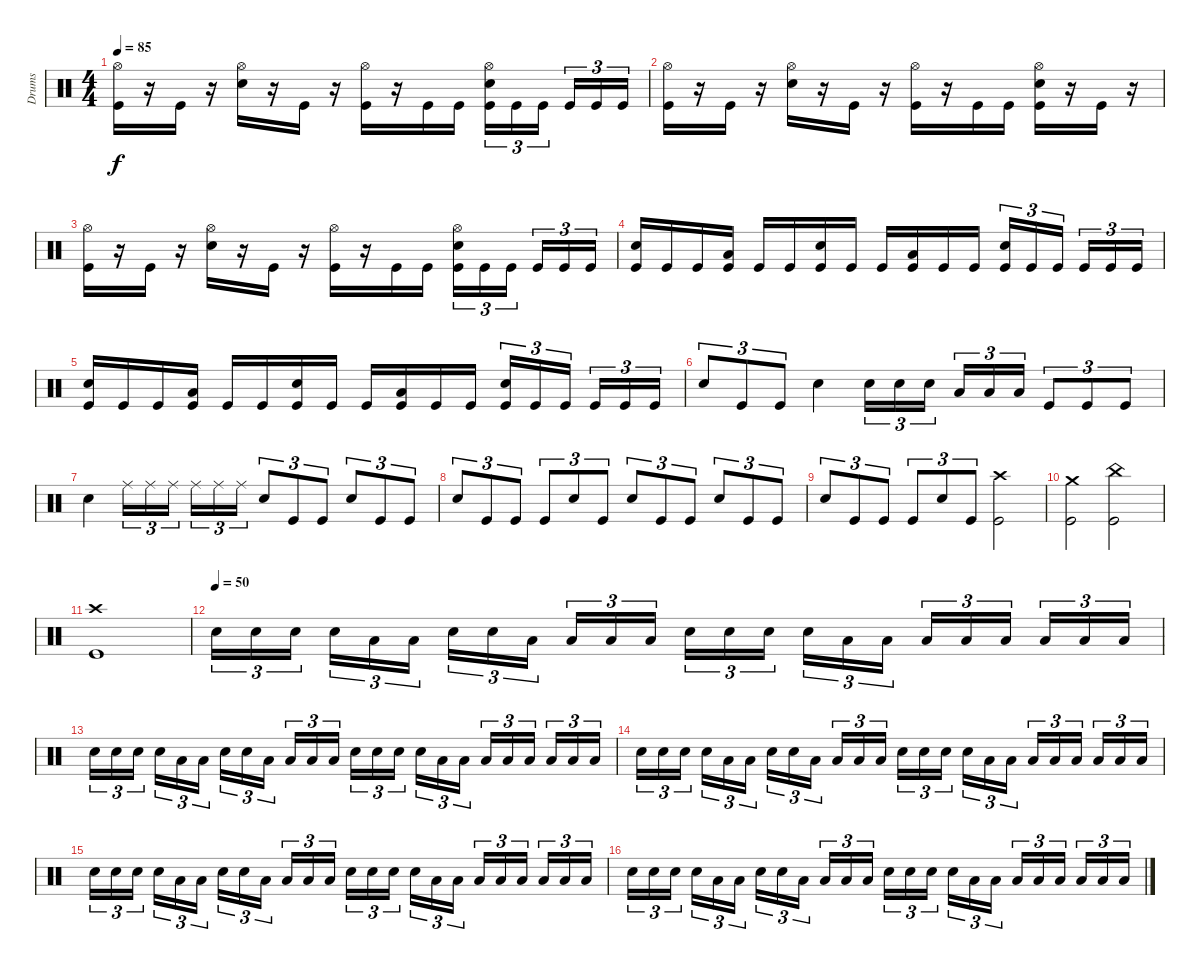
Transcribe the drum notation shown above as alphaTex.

\track ("Drums" "Drums") {instrument percussion}
\staff {score}
\articulation defaults
\ts (4 4)
\tempo 85
\clef neutral
\ks c
("Hi-Hat (open)" "Kick (hit)").16{dy f} r.16 "Kick (hit)".16 r.16 ("Hi-Hat (open)" "Snare (hit) 2").16 r.16 "Kick (hit)".16 r.16 ("Hi-Hat (open)" "Kick (hit)").16 r.16 "Kick (hit)".16 "Kick (hit)".16 ("Hi-Hat (open)" "Snare (hit) 2" "Kick (hit)").16{tu (3 2)} "Kick (hit)".16{tu (3 2)} "Kick (hit)".16{tu (3 2)} "Kick (hit)".16{tu (3 2)} "Kick (hit)".16{tu (3 2)} "Kick (hit)".16{tu (3 2)} |
("Hi-Hat (open)" "Kick (hit)").16 r.16 "Kick (hit)".16 r.16 ("Hi-Hat (open)" "Snare (hit) 2").16 r.16 "Kick (hit)".16 r.16 ("Hi-Hat (open)" "Kick (hit)").16 r.16 "Kick (hit)".16 "Kick (hit)".16 ("Hi-Hat (open)" "Snare (hit) 2" "Kick (hit)").16 r.16 "Kick (hit)".16 r.16 |
("Hi-Hat (open)" "Kick (hit)").16 r.16 "Kick (hit)".16 r.16 ("Hi-Hat (open)" "Snare (hit) 2").16 r.16 "Kick (hit)".16 r.16 ("Hi-Hat (open)" "Kick (hit)").16 r.16 "Kick (hit)".16 "Kick (hit)".16 ("Hi-Hat (open)" "Snare (hit) 2" "Kick (hit)").16{tu (3 2)} "Kick (hit)".16{tu (3 2)} "Kick (hit)".16{tu (3 2)} "Kick (hit)".16{tu (3 2)} "Kick (hit)".16{tu (3 2)} "Kick (hit)".16{tu (3 2)} |
("Snare (hit) 2" "Kick (hit)").16 "Kick (hit)".16 "Kick (hit)".16 ("Low Floor Tom (hit)" "Kick (hit)").16 "Kick (hit)".16 "Kick (hit)".16 ("Snare (hit) 2" "Kick (hit)").16 "Kick (hit)".16 "Kick (hit)".16 ("Low Floor Tom (hit)" "Kick (hit)").16 "Kick (hit)".16 "Kick (hit)".16 ("Snare (hit) 2" "Kick (hit)").16{tu (3 2)} "Kick (hit)".16{tu (3 2)} "Kick (hit)".16{tu (3 2)} "Kick (hit)".16{tu (3 2)} "Kick (hit)".16{tu (3 2)} "Kick (hit)".16{tu (3 2)} |
("Snare (hit) 2" "Kick (hit)").16 "Kick (hit)".16 "Kick (hit)".16 ("Low Floor Tom (hit)" "Kick (hit)").16 "Kick (hit)".16 "Kick (hit)".16 ("Snare (hit) 2" "Kick (hit)").16 "Kick (hit)".16 "Kick (hit)".16 ("Low Floor Tom (hit)" "Kick (hit)").16 "Kick (hit)".16 "Kick (hit)".16 ("Snare (hit) 2" "Kick (hit)").16{tu (3 2)} "Kick (hit)".16{tu (3 2)} "Kick (hit)".16{tu (3 2)} "Kick (hit)".16{tu (3 2)} "Kick (hit)".16{tu (3 2)} "Kick (hit)".16{tu (3 2)} |
"Snare (hit) 2".8{tu (3 2)} "Kick (hit)".8{tu (3 2)} "Kick (hit)".8{tu (3 2)} "Snare (hit) 2".4 "Snare (hit) 2".16{tu (3 2)} "Snare (hit) 2".16{tu (3 2)} "Snare (hit) 2".16{tu (3 2)} "Low Floor Tom (hit)".16{tu (3 2)} "Low Floor Tom (hit)".16{tu (3 2)} "Low Tom (hit)".16{tu (3 2)} "Kick (hit)".8{tu (3 2)} "Kick (hit)".8{tu (3 2)} "Kick (hit)".8{tu (3 2)} |
"Snare (hit) 2".4 "Ride (middle)".16{tu (3 2)} "Ride (middle)".16{tu (3 2)} "Ride (middle)".16{tu (3 2)} "Ride (middle)".16{tu (3 2)} "Ride (middle)".16{tu (3 2)} "Ride (middle)".16{tu (3 2)} "Snare (hit) 2".8{tu (3 2)} "Kick (hit)".8{tu (3 2)} "Kick (hit)".8{tu (3 2)} "Snare (hit) 2".8{tu (3 2)} "Kick (hit)".8{tu (3 2)} "Kick (hit)".8{tu (3 2)} |
"Snare (hit) 2".8{tu (3 2)} "Kick (hit)".8{tu (3 2)} "Kick (hit)".8{tu (3 2)} "Kick (hit)".8{tu (3 2)} "Snare (hit) 2".8{tu (3 2)} "Kick (hit)".8{tu (3 2)} "Snare (hit) 2".8{tu (3 2)} "Kick (hit)".8{tu (3 2)} "Kick (hit)".8{tu (3 2)} "Snare (hit) 2".8{tu (3 2)} "Kick (hit)".8{tu (3 2)} "Kick (hit)".8{tu (3 2)} |
"Snare (hit) 2".8{tu (3 2)} "Kick (hit)".8{tu (3 2)} "Kick (hit)".8{tu (3 2)} "Kick (hit)".8{tu (3 2)} "Snare (hit) 2".8{tu (3 2)} "Kick (hit)".8{tu (3 2)} ("Crash high (hit)" "Kick (hit)").2 |
("Crash medium (hit)" "Kick (hit)").2 ("China (hit)" "Kick (hit)").2 |
("Crash high (hit)" "Kick (hit)").1 |
\tempo (50)
"Snare (hit) 2".16{tu (3 2)} "Snare (hit) 2".16{tu (3 2)} "Snare (hit) 2".16{tu (3 2)} "Snare (hit) 2".16{tu (3 2)} "Low Floor Tom (hit)".16{tu (3 2)} "Low Floor Tom (hit)".16{tu (3 2)} "Snare (hit) 2".16{tu (3 2)} "Snare (hit) 2".16{tu (3 2)} "Low Tom (hit)".16{tu (3 2)} "Low Tom (hit)".16{tu (3 2)} "Low Tom (hit)".16{tu (3 2)} "Low Floor Tom (hit)".16{tu (3 2)} "Snare (hit) 2".16{tu (3 2)} "Snare (hit) 2".16{tu (3 2)} "Snare (hit) 2".16{tu (3 2)} "Snare (hit) 2".16{tu (3 2)} "Low Tom (hit)".16{tu (3 2)} "Low Tom (hit)".16{tu (3 2)} "Low Floor Tom (hit)".16{tu (3 2)} "Low Floor Tom (hit)".16{tu (3 2)} "Low Floor Tom (hit)".16{tu (3 2)} "Low Floor Tom (hit)".16{tu (3 2)} "Low Floor Tom (hit)".16{tu (3 2)} "Low Floor Tom (hit)".16{tu (3 2)} |
"Snare (hit) 2".16{tu (3 2)} "Snare (hit) 2".16{tu (3 2)} "Snare (hit) 2".16{tu (3 2)} "Snare (hit) 2".16{tu (3 2)} "Low Floor Tom (hit)".16{tu (3 2)} "Low Floor Tom (hit)".16{tu (3 2)} "Snare (hit) 2".16{tu (3 2)} "Snare (hit) 2".16{tu (3 2)} "Low Tom (hit)".16{tu (3 2)} "Low Tom (hit)".16{tu (3 2)} "Low Tom (hit)".16{tu (3 2)} "Low Floor Tom (hit)".16{tu (3 2)} "Snare (hit) 2".16{tu (3 2)} "Snare (hit) 2".16{tu (3 2)} "Snare (hit) 2".16{tu (3 2)} "Snare (hit) 2".16{tu (3 2)} "Low Tom (hit)".16{tu (3 2)} "Low Tom (hit)".16{tu (3 2)} "Low Floor Tom (hit)".16{tu (3 2)} "Low Floor Tom (hit)".16{tu (3 2)} "Low Floor Tom (hit)".16{tu (3 2)} "Low Floor Tom (hit)".16{tu (3 2)} "Low Floor Tom (hit)".16{tu (3 2)} "Low Floor Tom (hit)".16{tu (3 2)} |
"Snare (hit) 2".16{tu (3 2)} "Snare (hit) 2".16{tu (3 2)} "Snare (hit) 2".16{tu (3 2)} "Snare (hit) 2".16{tu (3 2)} "Low Floor Tom (hit)".16{tu (3 2)} "Low Floor Tom (hit)".16{tu (3 2)} "Snare (hit) 2".16{tu (3 2)} "Snare (hit) 2".16{tu (3 2)} "Low Tom (hit)".16{tu (3 2)} "Low Tom (hit)".16{tu (3 2)} "Low Tom (hit)".16{tu (3 2)} "Low Floor Tom (hit)".16{tu (3 2)} "Snare (hit) 2".16{tu (3 2)} "Snare (hit) 2".16{tu (3 2)} "Snare (hit) 2".16{tu (3 2)} "Snare (hit) 2".16{tu (3 2)} "Low Tom (hit)".16{tu (3 2)} "Low Tom (hit)".16{tu (3 2)} "Low Floor Tom (hit)".16{tu (3 2)} "Low Floor Tom (hit)".16{tu (3 2)} "Low Floor Tom (hit)".16{tu (3 2)} "Low Floor Tom (hit)".16{tu (3 2)} "Low Floor Tom (hit)".16{tu (3 2)} "Low Floor Tom (hit)".16{tu (3 2)} |
"Snare (hit) 2".16{tu (3 2)} "Snare (hit) 2".16{tu (3 2)} "Snare (hit) 2".16{tu (3 2)} "Snare (hit) 2".16{tu (3 2)} "Low Floor Tom (hit)".16{tu (3 2)} "Low Floor Tom (hit)".16{tu (3 2)} "Snare (hit) 2".16{tu (3 2)} "Snare (hit) 2".16{tu (3 2)} "Low Tom (hit)".16{tu (3 2)} "Low Tom (hit)".16{tu (3 2)} "Low Tom (hit)".16{tu (3 2)} "Low Floor Tom (hit)".16{tu (3 2)} "Snare (hit) 2".16{tu (3 2)} "Snare (hit) 2".16{tu (3 2)} "Snare (hit) 2".16{tu (3 2)} "Snare (hit) 2".16{tu (3 2)} "Low Tom (hit)".16{tu (3 2)} "Low Tom (hit)".16{tu (3 2)} "Low Floor Tom (hit)".16{tu (3 2)} "Low Floor Tom (hit)".16{tu (3 2)} "Low Floor Tom (hit)".16{tu (3 2)} "Low Floor Tom (hit)".16{tu (3 2)} "Low Floor Tom (hit)".16{tu (3 2)} "Low Floor Tom (hit)".16{tu (3 2)} |
"Snare (hit) 2".16{tu (3 2)} "Snare (hit) 2".16{tu (3 2)} "Snare (hit) 2".16{tu (3 2)} "Snare (hit) 2".16{tu (3 2)} "Low Floor Tom (hit)".16{tu (3 2)} "Low Floor Tom (hit)".16{tu (3 2)} "Snare (hit) 2".16{tu (3 2)} "Snare (hit) 2".16{tu (3 2)} "Low Tom (hit)".16{tu (3 2)} "Low Tom (hit)".16{tu (3 2)} "Low Tom (hit)".16{tu (3 2)} "Low Floor Tom (hit)".16{tu (3 2)} "Snare (hit) 2".16{tu (3 2)} "Snare (hit) 2".16{tu (3 2)} "Snare (hit) 2".16{tu (3 2)} "Snare (hit) 2".16{tu (3 2)} "Low Tom (hit)".16{tu (3 2)} "Low Tom (hit)".16{tu (3 2)} "Low Floor Tom (hit)".16{tu (3 2)} "Low Floor Tom (hit)".16{tu (3 2)} "Low Floor Tom (hit)".16{tu (3 2)} "Low Floor Tom (hit)".16{tu (3 2)} "Low Floor Tom (hit)".16{tu (3 2)} "Low Floor Tom (hit)".16{tu (3 2)}
